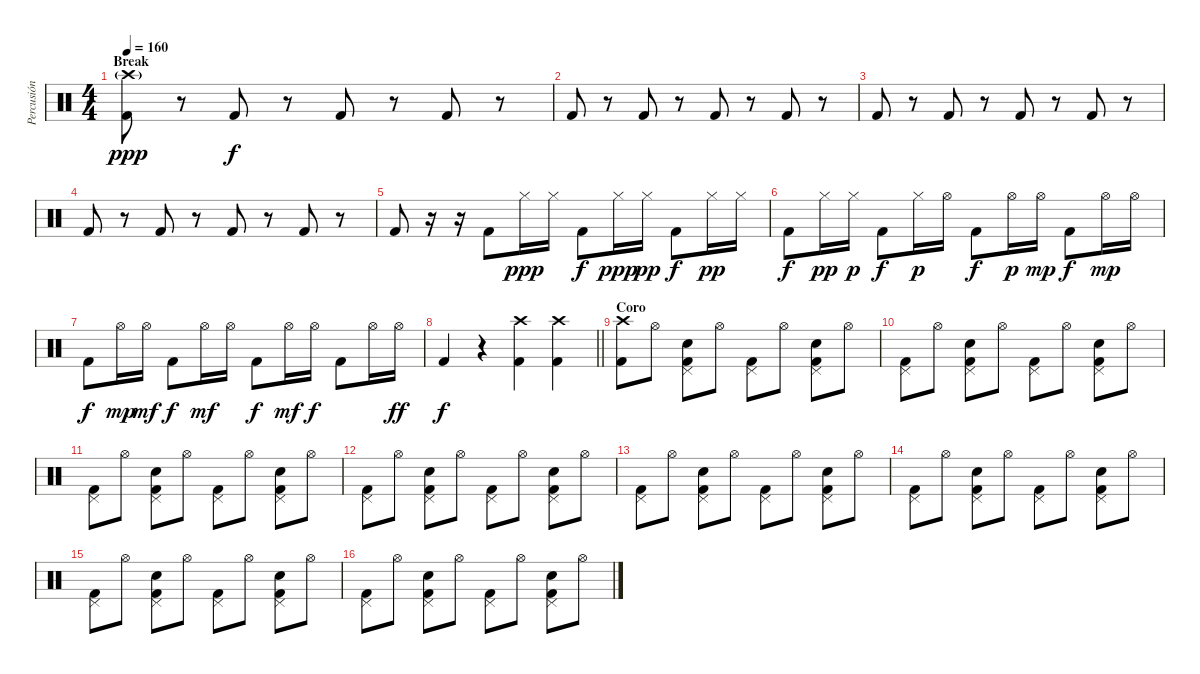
\track ("Percusión" "Percusión") {instrument percussion}
\staff {score}
\articulation defaults
\ts (4 4)
\section ("" "Break")
\tempo 160
\clef neutral
\ks c
("Crash high (hit)"{g} "Kick (hit) 2").8{dy ppp} r.8 "Kick (hit) 2".8{dy f} r.8 "Kick (hit) 2".8 r.8 "Kick (hit) 2".8 r.8 |
"Kick (hit) 2".8 r.8 "Kick (hit) 2".8 r.8 "Kick (hit) 2".8 r.8 "Kick (hit) 2".8 r.8 |
"Kick (hit) 2".8 r.8 "Kick (hit) 2".8 r.8 "Kick (hit) 2".8 r.8 "Kick (hit) 2".8 r.8 |
"Kick (hit) 2".8 r.8 "Kick (hit) 2".8 r.8 "Kick (hit) 2".8 r.8 "Kick (hit) 2".8 r.8 |
"Kick (hit) 2".8 r.16 r.16 "Kick (hit) 2".8 "Hi-Hat (closed)".16{dy ppp} "Hi-Hat (closed)".16 "Kick (hit) 2".8{dy f} "Hi-Hat (closed)".16{dy ppp} "Hi-Hat (closed)".16{dy pp} "Kick (hit) 2".8{dy f} "Hi-Hat (closed)".16{dy pp} "Hi-Hat (closed)".16 |
"Kick (hit) 2".8{dy f} "Hi-Hat (closed)".16{dy pp} "Hi-Hat (closed)".16{dy p} "Kick (hit) 2".8{dy f} "Hi-Hat (closed)".16{dy p} "Hi-Hat (open)".16 "Kick (hit) 2".8{dy f} "Hi-Hat (open)".16{dy p} "Hi-Hat (open)".16{dy mp} "Kick (hit) 2".8{dy f} "Hi-Hat (open)".16{dy mp} "Hi-Hat (open)".16 |
"Kick (hit) 2".8{dy f} "Hi-Hat (open)".16{dy mp} "Hi-Hat (open)".16{dy mf} "Kick (hit) 2".8{dy f} "Hi-Hat (open)".16{dy mf} "Hi-Hat (open)".16 "Kick (hit) 2".8{dy f} "Hi-Hat (open)".16{dy mf} "Hi-Hat (open)".16{dy f} "Kick (hit) 2".8 "Hi-Hat (open)".16 "Hi-Hat (open)".16{dy ff} |
\barLineRight lightlight "Kick (hit) 2".4{dy f}
r.4 ("Crash high (hit)" "Kick (hit) 2").4 ("Crash high (hit)" "Kick (hit) 2").4 |
\section ("" "Coro")
("Crash high (hit)" "Kick (hit) 2").8 "Hi-Hat (open)".8 ("Pedal Hi-Hat (hit)" "Snare (hit) 2" "Kick (hit) 2").8 "Hi-Hat (open)".8 ("Pedal Hi-Hat (hit)" "Kick (hit) 2").8 "Hi-Hat (open)".8 ("Pedal Hi-Hat (hit)" "Snare (hit) 2" "Kick (hit) 2").8 "Hi-Hat (open)".8 |
("Pedal Hi-Hat (hit)" "Kick (hit) 2").8 "Hi-Hat (open)".8 ("Pedal Hi-Hat (hit)" "Snare (hit) 2" "Kick (hit) 2").8 "Hi-Hat (open)".8 ("Pedal Hi-Hat (hit)" "Kick (hit) 2").8 "Hi-Hat (open)".8 ("Pedal Hi-Hat (hit)" "Snare (hit) 2" "Kick (hit) 2").8 "Hi-Hat (open)".8 |
("Pedal Hi-Hat (hit)" "Kick (hit) 2").8 "Hi-Hat (open)".8 ("Pedal Hi-Hat (hit)" "Snare (hit) 2" "Kick (hit) 2").8 "Hi-Hat (open)".8 ("Pedal Hi-Hat (hit)" "Kick (hit) 2").8 "Hi-Hat (open)".8 ("Pedal Hi-Hat (hit)" "Snare (hit) 2" "Kick (hit) 2").8 "Hi-Hat (open)".8 |
("Pedal Hi-Hat (hit)" "Kick (hit) 2").8 "Hi-Hat (open)".8 ("Pedal Hi-Hat (hit)" "Snare (hit) 2" "Kick (hit) 2").8 "Hi-Hat (open)".8 ("Pedal Hi-Hat (hit)" "Kick (hit) 2").8 "Hi-Hat (open)".8 ("Pedal Hi-Hat (hit)" "Snare (hit) 2" "Kick (hit) 2").8 "Hi-Hat (open)".8 |
("Pedal Hi-Hat (hit)" "Kick (hit) 2").8 "Hi-Hat (open)".8 ("Pedal Hi-Hat (hit)" "Snare (hit) 2" "Kick (hit) 2").8 "Hi-Hat (open)".8 ("Pedal Hi-Hat (hit)" "Kick (hit) 2").8 "Hi-Hat (open)".8 ("Pedal Hi-Hat (hit)" "Snare (hit) 2" "Kick (hit) 2").8 "Hi-Hat (open)".8 |
("Pedal Hi-Hat (hit)" "Kick (hit) 2").8 "Hi-Hat (open)".8 ("Pedal Hi-Hat (hit)" "Snare (hit) 2" "Kick (hit) 2").8 "Hi-Hat (open)".8 ("Pedal Hi-Hat (hit)" "Kick (hit) 2").8 "Hi-Hat (open)".8 ("Pedal Hi-Hat (hit)" "Snare (hit) 2" "Kick (hit) 2").8 "Hi-Hat (open)".8 |
("Pedal Hi-Hat (hit)" "Kick (hit) 2").8 "Hi-Hat (open)".8 ("Pedal Hi-Hat (hit)" "Snare (hit) 2" "Kick (hit) 2").8 "Hi-Hat (open)".8 ("Pedal Hi-Hat (hit)" "Kick (hit) 2").8 "Hi-Hat (open)".8 ("Pedal Hi-Hat (hit)" "Snare (hit) 2" "Kick (hit) 2").8 "Hi-Hat (open)".8 |
("Pedal Hi-Hat (hit)" "Kick (hit) 2").8 "Hi-Hat (open)".8 ("Pedal Hi-Hat (hit)" "Snare (hit) 2" "Kick (hit) 2").8 "Hi-Hat (open)".8 ("Pedal Hi-Hat (hit)" "Kick (hit) 2").8 "Hi-Hat (open)".8 ("Pedal Hi-Hat (hit)" "Snare (hit) 2" "Kick (hit) 2").8 "Hi-Hat (open)".8
